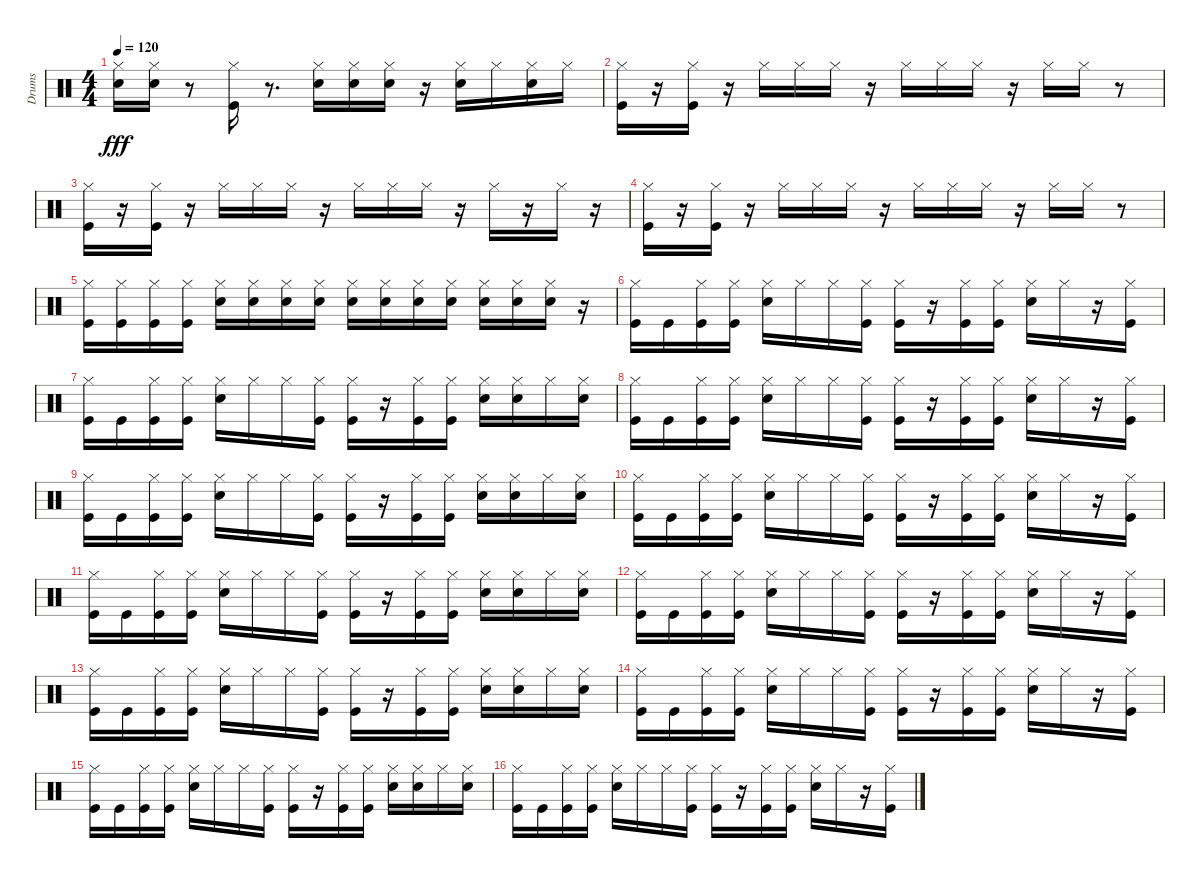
\track ("Drums" "Drums") {instrument percussion}
\staff {score}
\articulation defaults
\ts (4 4)
\tempo 120
\clef neutral
\ks c
("Snare (hit) 2" "Hi-Hat (closed)").16{dy fff} ("Snare (hit) 2" "Hi-Hat (closed)").16 r.8 ("Kick (hit)" "Hi-Hat (closed)").16 r.8{d} ("Snare (hit) 2" "Hi-Hat (closed)").16 ("Snare (hit) 2" "Hi-Hat (closed)").16 ("Snare (hit) 2" "Hi-Hat (closed)").16 r.16 ("Snare (hit) 2" "Hi-Hat (closed)").16 "Hi-Hat (closed)".16 ("Snare (hit) 2" "Hi-Hat (closed)").16 "Hi-Hat (closed)".16 |
("Kick (hit)" "Hi-Hat (closed)").16 r.16 ("Kick (hit)" "Hi-Hat (closed)").16 r.16 "Hi-Hat (closed)".16 "Hi-Hat (closed)".16 "Hi-Hat (closed)".16 r.16 "Hi-Hat (closed)".16 "Hi-Hat (closed)".16 "Hi-Hat (closed)".16 r.16 "Hi-Hat (closed)".16 "Hi-Hat (closed)".16 r.8 |
("Kick (hit)" "Hi-Hat (closed)").16 r.16 ("Kick (hit)" "Hi-Hat (closed)").16 r.16 "Hi-Hat (closed)".16 "Hi-Hat (closed)".16 "Hi-Hat (closed)".16 r.16 "Hi-Hat (closed)".16 "Hi-Hat (closed)".16 "Hi-Hat (closed)".16 r.16 "Hi-Hat (closed)".16 r.16 "Hi-Hat (closed)".16 r.16 |
("Kick (hit)" "Hi-Hat (closed)").16 r.16 ("Kick (hit)" "Hi-Hat (closed)").16 r.16 "Hi-Hat (closed)".16 "Hi-Hat (closed)".16 "Hi-Hat (closed)".16 r.16 "Hi-Hat (closed)".16 "Hi-Hat (closed)".16 "Hi-Hat (closed)".16 r.16 "Hi-Hat (closed)".16 "Hi-Hat (closed)".16 r.8 |
("Kick (hit)" "Hi-Hat (closed)").16 ("Kick (hit)" "Hi-Hat (closed)").16 ("Kick (hit)" "Hi-Hat (closed)").16 ("Kick (hit)" "Hi-Hat (closed)").16 ("Snare (hit) 2" "Hi-Hat (closed)").16 ("Snare (hit) 2" "Hi-Hat (closed)").16 ("Snare (hit) 2" "Hi-Hat (closed)").16 ("Snare (hit) 2" "Hi-Hat (closed)").16 ("Snare (hit) 2" "Hi-Hat (closed)").16 ("Snare (hit) 2" "Hi-Hat (closed)").16 ("Snare (hit) 2" "Hi-Hat (closed)").16 ("Snare (hit) 2" "Hi-Hat (closed)").16 ("Snare (hit) 2" "Hi-Hat (closed)").16 ("Snare (hit) 2" "Hi-Hat (closed)").16 ("Snare (hit) 2" "Hi-Hat (closed)").16 r.16 |
("Kick (hit)" "Hi-Hat (closed)").16 "Kick (hit)".16 ("Kick (hit)" "Hi-Hat (closed)").16 ("Kick (hit)" "Hi-Hat (closed)").16 ("Snare (hit) 2" "Hi-Hat (closed)").16 "Hi-Hat (closed)".16 "Hi-Hat (closed)".16 ("Kick (hit)" "Hi-Hat (closed)").16 ("Kick (hit)" "Hi-Hat (closed)").16 r.16 ("Kick (hit)" "Hi-Hat (closed)").16 ("Kick (hit)" "Hi-Hat (closed)").16 ("Snare (hit) 2" "Hi-Hat (closed)").16 "Hi-Hat (closed)".16 r.16 ("Kick (hit)" "Hi-Hat (closed)").16 |
("Kick (hit)" "Hi-Hat (closed)").16 "Kick (hit)".16 ("Kick (hit)" "Hi-Hat (closed)").16 ("Kick (hit)" "Hi-Hat (closed)").16 ("Snare (hit) 2" "Hi-Hat (closed)").16 "Hi-Hat (closed)".16 "Hi-Hat (closed)".16 ("Kick (hit)" "Hi-Hat (closed)").16 ("Kick (hit)" "Hi-Hat (closed)").16 r.16 ("Kick (hit)" "Hi-Hat (closed)").16 ("Kick (hit)" "Hi-Hat (closed)").16 ("Snare (hit) 2" "Hi-Hat (closed)").16 ("Snare (hit) 2" "Hi-Hat (closed)").16 "Hi-Hat (closed)".16 ("Snare (hit) 2" "Hi-Hat (closed)").16 |
("Kick (hit)" "Hi-Hat (closed)").16 "Kick (hit)".16 ("Kick (hit)" "Hi-Hat (closed)").16 ("Kick (hit)" "Hi-Hat (closed)").16 ("Snare (hit) 2" "Hi-Hat (closed)").16 "Hi-Hat (closed)".16 "Hi-Hat (closed)".16 ("Kick (hit)" "Hi-Hat (closed)").16 ("Kick (hit)" "Hi-Hat (closed)").16 r.16 ("Kick (hit)" "Hi-Hat (closed)").16 ("Kick (hit)" "Hi-Hat (closed)").16 ("Snare (hit) 2" "Hi-Hat (closed)").16 "Hi-Hat (closed)".16 r.16 ("Kick (hit)" "Hi-Hat (closed)").16 |
("Kick (hit)" "Hi-Hat (closed)").16 "Kick (hit)".16 ("Kick (hit)" "Hi-Hat (closed)").16 ("Kick (hit)" "Hi-Hat (closed)").16 ("Snare (hit) 2" "Hi-Hat (closed)").16 "Hi-Hat (closed)".16 "Hi-Hat (closed)".16 ("Kick (hit)" "Hi-Hat (closed)").16 ("Kick (hit)" "Hi-Hat (closed)").16 r.16 ("Kick (hit)" "Hi-Hat (closed)").16 ("Kick (hit)" "Hi-Hat (closed)").16 ("Snare (hit) 2" "Hi-Hat (closed)").16 ("Snare (hit) 2" "Hi-Hat (closed)").16 "Hi-Hat (closed)".16 ("Snare (hit) 2" "Hi-Hat (closed)").16 |
("Kick (hit)" "Hi-Hat (closed)").16 "Kick (hit)".16 ("Kick (hit)" "Hi-Hat (closed)").16 ("Kick (hit)" "Hi-Hat (closed)").16 ("Snare (hit) 2" "Hi-Hat (closed)").16 "Hi-Hat (closed)".16 "Hi-Hat (closed)".16 ("Kick (hit)" "Hi-Hat (closed)").16 ("Kick (hit)" "Hi-Hat (closed)").16 r.16 ("Kick (hit)" "Hi-Hat (closed)").16 ("Kick (hit)" "Hi-Hat (closed)").16 ("Snare (hit) 2" "Hi-Hat (closed)").16 "Hi-Hat (closed)".16 r.16 ("Kick (hit)" "Hi-Hat (closed)").16 |
("Kick (hit)" "Hi-Hat (closed)").16 "Kick (hit)".16 ("Kick (hit)" "Hi-Hat (closed)").16 ("Kick (hit)" "Hi-Hat (closed)").16 ("Snare (hit) 2" "Hi-Hat (closed)").16 "Hi-Hat (closed)".16 "Hi-Hat (closed)".16 ("Kick (hit)" "Hi-Hat (closed)").16 ("Kick (hit)" "Hi-Hat (closed)").16 r.16 ("Kick (hit)" "Hi-Hat (closed)").16 ("Kick (hit)" "Hi-Hat (closed)").16 ("Snare (hit) 2" "Hi-Hat (closed)").16 ("Snare (hit) 2" "Hi-Hat (closed)").16 "Hi-Hat (closed)".16 ("Snare (hit) 2" "Hi-Hat (closed)").16 |
("Kick (hit)" "Hi-Hat (closed)").16 "Kick (hit)".16 ("Kick (hit)" "Hi-Hat (closed)").16 ("Kick (hit)" "Hi-Hat (closed)").16 ("Snare (hit) 2" "Hi-Hat (closed)").16 "Hi-Hat (closed)".16 "Hi-Hat (closed)".16 ("Kick (hit)" "Hi-Hat (closed)").16 ("Kick (hit)" "Hi-Hat (closed)").16 r.16 ("Kick (hit)" "Hi-Hat (closed)").16 ("Kick (hit)" "Hi-Hat (closed)").16 ("Snare (hit) 2" "Hi-Hat (closed)").16 "Hi-Hat (closed)".16 r.16 ("Kick (hit)" "Hi-Hat (closed)").16 |
("Kick (hit)" "Hi-Hat (closed)").16 "Kick (hit)".16 ("Kick (hit)" "Hi-Hat (closed)").16 ("Kick (hit)" "Hi-Hat (closed)").16 ("Snare (hit) 2" "Hi-Hat (closed)").16 "Hi-Hat (closed)".16 "Hi-Hat (closed)".16 ("Kick (hit)" "Hi-Hat (closed)").16 ("Kick (hit)" "Hi-Hat (closed)").16 r.16 ("Kick (hit)" "Hi-Hat (closed)").16 ("Kick (hit)" "Hi-Hat (closed)").16 ("Snare (hit) 2" "Hi-Hat (closed)").16 ("Snare (hit) 2" "Hi-Hat (closed)").16 "Hi-Hat (closed)".16 ("Snare (hit) 2" "Hi-Hat (closed)").16 |
("Kick (hit)" "Hi-Hat (closed)").16 "Kick (hit)".16 ("Kick (hit)" "Hi-Hat (closed)").16 ("Kick (hit)" "Hi-Hat (closed)").16 ("Snare (hit) 2" "Hi-Hat (closed)").16 "Hi-Hat (closed)".16 "Hi-Hat (closed)".16 ("Kick (hit)" "Hi-Hat (closed)").16 ("Kick (hit)" "Hi-Hat (closed)").16 r.16 ("Kick (hit)" "Hi-Hat (closed)").16 ("Kick (hit)" "Hi-Hat (closed)").16 ("Snare (hit) 2" "Hi-Hat (closed)").16 "Hi-Hat (closed)".16 r.16 ("Kick (hit)" "Hi-Hat (closed)").16 |
("Kick (hit)" "Hi-Hat (closed)").16 "Kick (hit)".16 ("Kick (hit)" "Hi-Hat (closed)").16 ("Kick (hit)" "Hi-Hat (closed)").16 ("Snare (hit) 2" "Hi-Hat (closed)").16 "Hi-Hat (closed)".16 "Hi-Hat (closed)".16 ("Kick (hit)" "Hi-Hat (closed)").16 ("Kick (hit)" "Hi-Hat (closed)").16 r.16 ("Kick (hit)" "Hi-Hat (closed)").16 ("Kick (hit)" "Hi-Hat (closed)").16 ("Snare (hit) 2" "Hi-Hat (closed)").16 ("Snare (hit) 2" "Hi-Hat (closed)").16 "Hi-Hat (closed)".16 ("Snare (hit) 2" "Hi-Hat (closed)").16 |
("Kick (hit)" "Hi-Hat (closed)").16 "Kick (hit)".16 ("Kick (hit)" "Hi-Hat (closed)").16 ("Kick (hit)" "Hi-Hat (closed)").16 ("Snare (hit) 2" "Hi-Hat (closed)").16 "Hi-Hat (closed)".16 "Hi-Hat (closed)".16 ("Kick (hit)" "Hi-Hat (closed)").16 ("Kick (hit)" "Hi-Hat (closed)").16 r.16 ("Kick (hit)" "Hi-Hat (closed)").16 ("Kick (hit)" "Hi-Hat (closed)").16 ("Snare (hit) 2" "Hi-Hat (closed)").16 "Hi-Hat (closed)".16 r.16 ("Kick (hit)" "Hi-Hat (closed)").16
